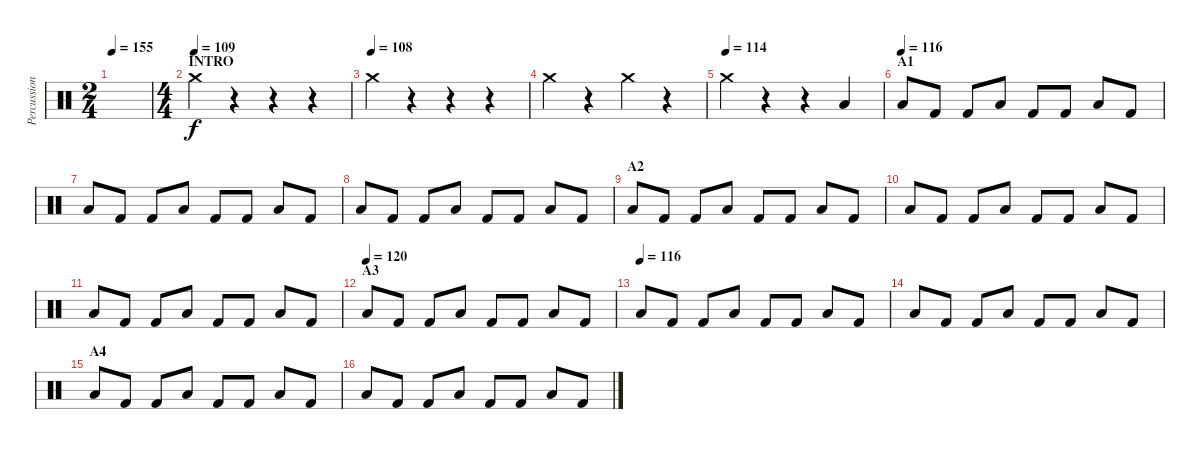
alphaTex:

\track ("Percussion" "Percussion") {instrument percussion}
\staff {score}
\articulation defaults
\ts (2 4)
\tempo 155
\tempo 122
\tempo 155
\clef neutral
\ks c
|
\ts (4 4)
\section ("" "INTRO")
\tempo (109)
"Crash medium (hit)".4 r.4 r.4 r.4 |
\tempo (108)
"Crash medium (hit)".4 r.4 r.4 r.4 |
"Crash medium (hit)".4 r.4 "Crash medium (hit)".4 r.4 |
\tempo (114)
"Crash medium (hit)".4 r.4 r.4 "Low Floor Tom (hit)".4 |
\section ("" "A1")
\tempo (116)
"Low Tom (hit)".8 "Kick (hit) 2".8 "Kick (hit) 2".8 "Low Tom (hit)".8 "Kick (hit) 2".8 "Kick (hit) 2".8 "Low Tom (hit)".8 "Kick (hit) 2".8 |
"Low Tom (hit)".8 "Kick (hit) 2".8 "Kick (hit) 2".8 "Low Tom (hit)".8 "Kick (hit) 2".8 "Kick (hit) 2".8 "Low Tom (hit)".8 "Kick (hit) 2".8 |
"Low Tom (hit)".8 "Kick (hit) 2".8 "Kick (hit) 2".8 "Low Tom (hit)".8 "Kick (hit) 2".8 "Kick (hit) 2".8 "Low Tom (hit)".8 "Kick (hit) 2".8 |
\section ("" "A2")
"Low Tom (hit)".8 "Kick (hit) 2".8 "Kick (hit) 2".8 "Low Tom (hit)".8 "Kick (hit) 2".8 "Kick (hit) 2".8 "Low Tom (hit)".8 "Kick (hit) 2".8 |
"Low Tom (hit)".8 "Kick (hit) 2".8 "Kick (hit) 2".8 "Low Tom (hit)".8 "Kick (hit) 2".8 "Kick (hit) 2".8 "Low Tom (hit)".8 "Kick (hit) 2".8 |
"Low Tom (hit)".8 "Kick (hit) 2".8 "Kick (hit) 2".8 "Low Tom (hit)".8 "Kick (hit) 2".8 "Kick (hit) 2".8 "Low Tom (hit)".8 "Kick (hit) 2".8 |
\section ("" "A3")
\tempo (120)
"Low Tom (hit)".8 "Kick (hit) 2".8 "Kick (hit) 2".8 "Low Tom (hit)".8 "Kick (hit) 2".8 "Kick (hit) 2".8 "Low Tom (hit)".8 "Kick (hit) 2".8 |
\tempo (116)
"Low Tom (hit)".8 "Kick (hit) 2".8 "Kick (hit) 2".8 "Low Tom (hit)".8 "Kick (hit) 2".8 "Kick (hit) 2".8 "Low Tom (hit)".8 "Kick (hit) 2".8 |
"Low Tom (hit)".8 "Kick (hit) 2".8 "Kick (hit) 2".8 "Low Tom (hit)".8 "Kick (hit) 2".8 "Kick (hit) 2".8 "Low Tom (hit)".8 "Kick (hit) 2".8 |
\section ("" "A4")
"Low Tom (hit)".8 "Kick (hit) 2".8 "Kick (hit) 2".8 "Low Tom (hit)".8 "Kick (hit) 2".8 "Kick (hit) 2".8 "Low Tom (hit)".8 "Kick (hit) 2".8 |
"Low Tom (hit)".8 "Kick (hit) 2".8 "Kick (hit) 2".8 "Low Tom (hit)".8 "Kick (hit) 2".8 "Kick (hit) 2".8 "Low Tom (hit)".8 "Kick (hit) 2".8
